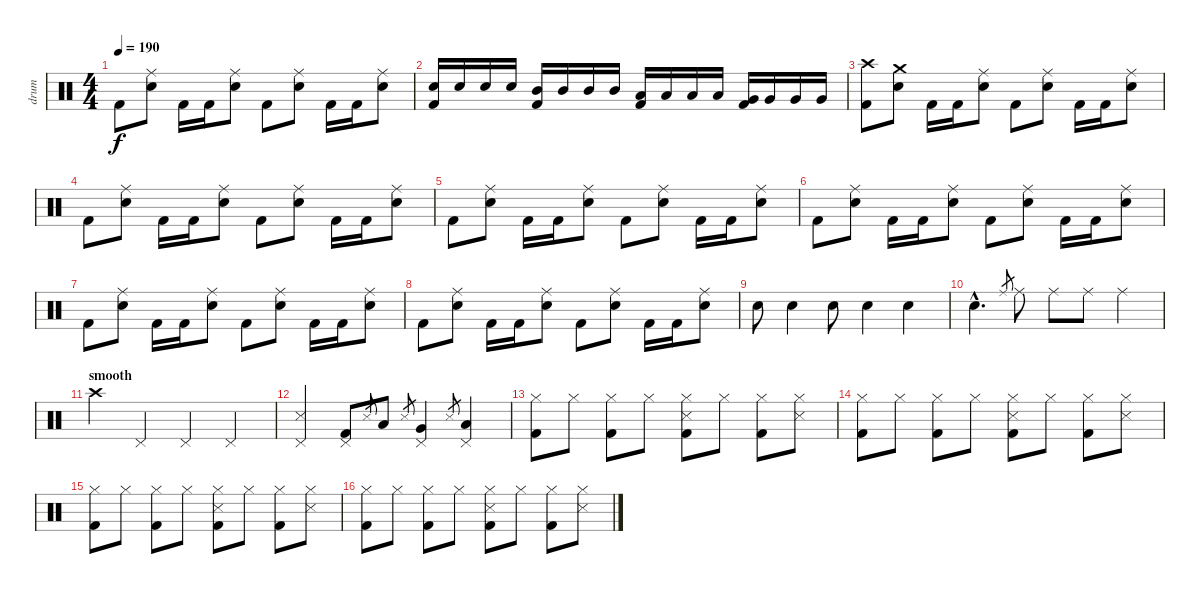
\track ("drum" "drum") {instrument percussion}
\staff {score}
\articulation defaults
\ts (4 4)
\tempo 190
\clef neutral
\ks c "Kick (hit) 2".8{dy f}
("Ride (middle)" "Electric Snare (hit)").8 "Kick (hit) 2".16 "Kick (hit) 2".16 ("Ride (middle)" "Electric Snare (hit)").8 "Kick (hit) 2".8 ("Ride (middle)" "Electric Snare (hit)").8 "Kick (hit) 2".16 "Kick (hit) 2".16 ("Ride (middle)" "Electric Snare (hit)").8 |
("Electric Snare (hit)" "Kick (hit) 2").16 "Electric Snare (hit)".16 "Electric Snare (hit)".16 "Electric Snare (hit)".16 ("Mid Tom (hit)" "Kick (hit) 2").16 "Mid Tom (hit)".16 "Mid Tom (hit)".16 "Mid Tom (hit)".16 ("Low Tom (hit)" "Kick (hit) 2").16 "Low Tom (hit)".16 "Low Tom (hit)".16 "Low Tom (hit)".16 ("Very Low Tom (hit)" "Kick (hit) 2").16 "Very Low Tom (hit)".16 "Very Low Tom (hit)".16 "Very Low Tom (hit)".16 |
("Crash high (hit)" "Kick (hit) 2").8 ("Crash medium (hit)" "Electric Snare (hit)").8 "Kick (hit) 2".16 "Kick (hit) 2".16 ("Ride (middle)" "Electric Snare (hit)").8 "Kick (hit) 2".8 ("Ride (middle)" "Electric Snare (hit)").8 "Kick (hit) 2".16 "Kick (hit) 2".16 ("Ride (middle)" "Electric Snare (hit)").8 |
"Kick (hit) 2".8 ("Ride (middle)" "Electric Snare (hit)").8 "Kick (hit) 2".16 "Kick (hit) 2".16 ("Ride (middle)" "Electric Snare (hit)").8 "Kick (hit) 2".8 ("Ride (middle)" "Electric Snare (hit)").8 "Kick (hit) 2".16 "Kick (hit) 2".16 ("Ride (middle)" "Electric Snare (hit)").8 |
"Kick (hit) 2".8 ("Ride (middle)" "Electric Snare (hit)").8 "Kick (hit) 2".16 "Kick (hit) 2".16 ("Ride (middle)" "Electric Snare (hit)").8 "Kick (hit) 2".8 ("Ride (middle)" "Electric Snare (hit)").8 "Kick (hit) 2".16 "Kick (hit) 2".16 ("Ride (middle)" "Electric Snare (hit)").8 |
"Kick (hit) 2".8 ("Ride (middle)" "Electric Snare (hit)").8 "Kick (hit) 2".16 "Kick (hit) 2".16 ("Ride (middle)" "Electric Snare (hit)").8 "Kick (hit) 2".8 ("Ride (middle)" "Electric Snare (hit)").8 "Kick (hit) 2".16 "Kick (hit) 2".16 ("Ride (middle)" "Electric Snare (hit)").8 |
"Kick (hit) 2".8 ("Ride (middle)" "Electric Snare (hit)").8 "Kick (hit) 2".16 "Kick (hit) 2".16 ("Ride (middle)" "Electric Snare (hit)").8 "Kick (hit) 2".8 ("Ride (middle)" "Electric Snare (hit)").8 "Kick (hit) 2".16 "Kick (hit) 2".16 ("Ride (middle)" "Electric Snare (hit)").8 |
"Kick (hit) 2".8 ("Ride (middle)" "Electric Snare (hit)").8 "Kick (hit) 2".16 "Kick (hit) 2".16 ("Ride (middle)" "Electric Snare (hit)").8 "Kick (hit) 2".8 ("Ride (middle)" "Electric Snare (hit)").8 "Kick (hit) 2".16 "Kick (hit) 2".16 ("Ride (middle)" "Electric Snare (hit)").8 |
"Electric Snare (hit)".8 "Electric Snare (hit)".4 "Electric Snare (hit)".8 "Electric Snare (hit)".4 "Electric Snare (hit)".4 |
"Electric Snare (hit)"{hac}.4{d} "Ride (middle)".8{gr} "Ride (middle)".8 "Ride (middle)".8 "Ride (middle)".8 "Ride (middle)".4 |
\section ("" "smooth")
"Crash high (hit)".4 "Pedal Hi-Hat (hit)".4 "Pedal Hi-Hat (hit)".4 "Pedal Hi-Hat (hit)".4 |
("Pedal Hi-Hat (hit)" "Snare (side stick) 3").4 ("Pedal Hi-Hat (hit)" "Kick (hit) 2").8 "Snare (side stick) 3".8{gr} "Low Tom (hit)".8 "Snare (side stick) 3".8{gr} ("Pedal Hi-Hat (hit)" "Very Low Tom (hit)").4 "Snare (side stick) 3".8{gr} ("Pedal Hi-Hat (hit)" "Low Floor Tom (hit)").4 |
("Hi-Hat (closed)" "Kick (hit) 2").8 "Hi-Hat (closed)".8 ("Hi-Hat (closed)" "Kick (hit) 2").8 "Hi-Hat (closed)".8 ("Hi-Hat (closed)" "Snare (side stick) 3" "Kick (hit) 2").8 "Hi-Hat (closed)".8 ("Hi-Hat (closed)" "Kick (hit) 2").8 ("Hi-Hat (closed)" "Snare (side stick) 3").8 |
("Hi-Hat (closed)" "Kick (hit) 2").8 "Hi-Hat (closed)".8 ("Hi-Hat (closed)" "Kick (hit) 2").8 "Hi-Hat (closed)".8 ("Hi-Hat (closed)" "Snare (side stick) 3" "Kick (hit) 2").8 "Hi-Hat (closed)".8 ("Hi-Hat (closed)" "Kick (hit) 2").8 ("Hi-Hat (closed)" "Snare (side stick) 3").8 |
("Hi-Hat (closed)" "Kick (hit) 2").8 "Hi-Hat (closed)".8 ("Hi-Hat (closed)" "Kick (hit) 2").8 "Hi-Hat (closed)".8 ("Hi-Hat (closed)" "Snare (side stick) 3" "Kick (hit) 2").8 "Hi-Hat (closed)".8 ("Hi-Hat (closed)" "Kick (hit) 2").8 ("Hi-Hat (closed)" "Snare (side stick) 3").8 |
("Hi-Hat (closed)" "Kick (hit) 2").8 "Hi-Hat (closed)".8 ("Hi-Hat (closed)" "Kick (hit) 2").8 "Hi-Hat (closed)".8 ("Hi-Hat (closed)" "Snare (side stick) 3" "Kick (hit) 2").8 "Hi-Hat (closed)".8 ("Hi-Hat (closed)" "Kick (hit) 2").8 ("Hi-Hat (closed)" "Snare (side stick) 3").8
